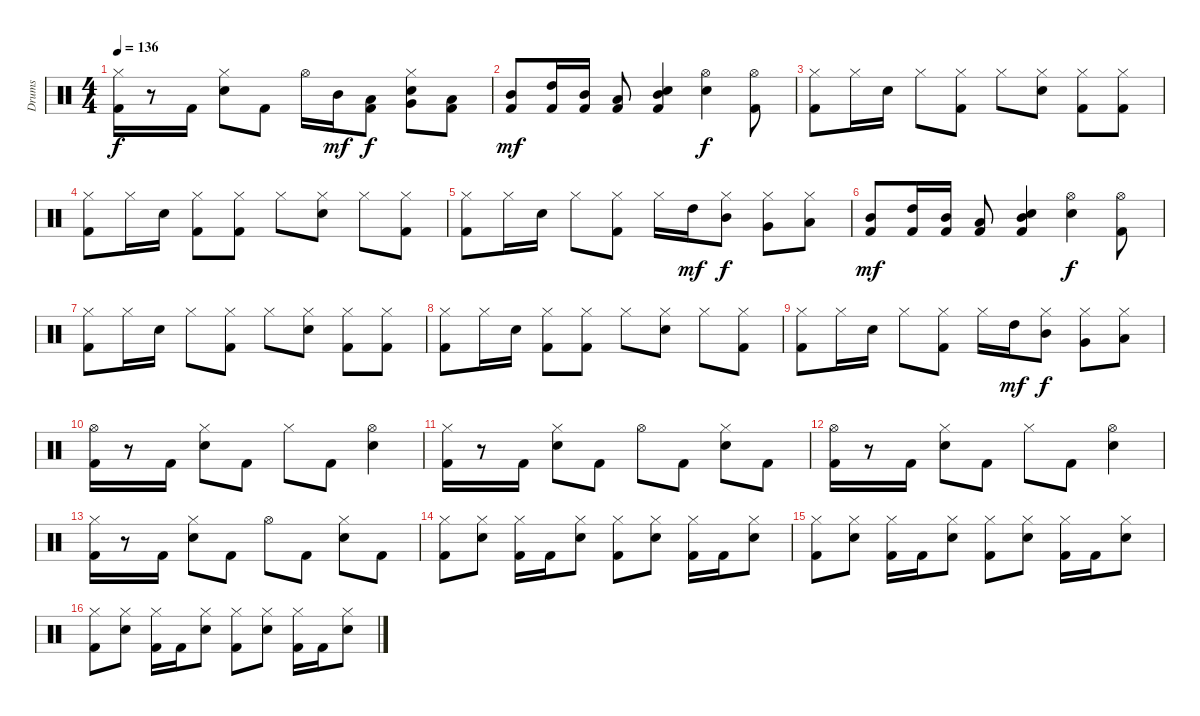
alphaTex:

\track ("Drums" "Drums") {instrument percussion}
\staff {score}
\articulation defaults
\ts (4 4)
\tempo 136
\clef neutral
\ks c
("Kick (hit) 2" "Hi-Hat (closed)").16{dy f} r.8 "Kick (hit) 2".16 ("Snare (hit) 2" "Hi-Hat (closed)").8 "Kick (hit) 2".8 "Hi-Hat (open)".16 "Mid Tom (hit)".16{dy mf} ("Kick (hit) 2" "Low Tom (hit)").8{dy f} ("Snare (hit) 2" "Hi-Hat (closed)" "Very Low Tom (hit)").8 ("Kick (hit) 2" "Low Floor Tom (hit)").8 |
("Kick (hit) 2" "Mid Tom (hit)").8{dy mf} ("Kick (hit) 2" "High Tom (hit)").16 ("Kick (hit) 2" "Mid Tom (hit)").16 ("Kick (hit) 2" "Low Tom (hit)").8 ("Kick (hit) 2" "Snare (hit) 2" "Mid Tom (hit)").4 ("Snare (hit) 2" "Hi-Hat (open)").4{dy f} ("Kick (hit) 2" "Hi-Hat (open)").8 |
("Kick (hit) 2" "Hi-Hat (closed)").8 "Hi-Hat (closed)".16 "Snare (hit) 2".16 "Hi-Hat (closed)".8 ("Kick (hit) 2" "Hi-Hat (closed)").8 "Hi-Hat (closed)".8 ("Snare (hit) 2" "Hi-Hat (closed)").8 ("Kick (hit) 2" "Hi-Hat (closed)").8 ("Kick (hit) 2" "Hi-Hat (closed)").8 |
("Kick (hit) 2" "Hi-Hat (closed)").8 "Hi-Hat (closed)".16 "Snare (hit) 2".16 ("Kick (hit) 2" "Hi-Hat (closed)").8 ("Kick (hit) 2" "Hi-Hat (closed)").8 "Hi-Hat (closed)".8 ("Snare (hit) 2" "Hi-Hat (closed)").8 "Hi-Hat (closed)".8 ("Kick (hit) 2" "Hi-Hat (closed)").8 |
("Kick (hit) 2" "Hi-Hat (closed)").8 "Hi-Hat (closed)".16 "Snare (hit) 2".16 "Hi-Hat (closed)".8 ("Kick (hit) 2" "Hi-Hat (closed)").8 "Hi-Hat (closed)".16 "High Tom (hit)".16{dy mf} ("Hi-Hat (closed)" "Mid Tom (hit)").8{dy f} ("Hi-Hat (closed)" "Very Low Tom (hit)").8 ("Low Floor Tom (hit)" "Hi-Hat (closed)").8 |
("Kick (hit) 2" "Mid Tom (hit)").8{dy mf} ("Kick (hit) 2" "High Tom (hit)").16 ("Kick (hit) 2" "Mid Tom (hit)").16 ("Kick (hit) 2" "Low Tom (hit)").8 ("Kick (hit) 2" "Snare (hit) 2" "Mid Tom (hit)").4 ("Snare (hit) 2" "Hi-Hat (open)").4{dy f} ("Kick (hit) 2" "Hi-Hat (open)").8 |
("Kick (hit) 2" "Hi-Hat (closed)").8 "Hi-Hat (closed)".16 "Snare (hit) 2".16 "Hi-Hat (closed)".8 ("Kick (hit) 2" "Hi-Hat (closed)").8 "Hi-Hat (closed)".8 ("Snare (hit) 2" "Hi-Hat (closed)").8 ("Kick (hit) 2" "Hi-Hat (closed)").8 ("Kick (hit) 2" "Hi-Hat (closed)").8 |
("Kick (hit) 2" "Hi-Hat (closed)").8 "Hi-Hat (closed)".16 "Snare (hit) 2".16 ("Kick (hit) 2" "Hi-Hat (closed)").8 ("Kick (hit) 2" "Hi-Hat (closed)").8 "Hi-Hat (closed)".8 ("Snare (hit) 2" "Hi-Hat (closed)").8 "Hi-Hat (closed)".8 ("Kick (hit) 2" "Hi-Hat (closed)").8 |
("Kick (hit) 2" "Hi-Hat (closed)").8 "Hi-Hat (closed)".16 "Snare (hit) 2".16 "Hi-Hat (closed)".8 ("Kick (hit) 2" "Hi-Hat (closed)").8 "Hi-Hat (closed)".16 "High Tom (hit)".16{dy mf} ("Hi-Hat (closed)" "Mid Tom (hit)").8{dy f} ("Hi-Hat (closed)" "Very Low Tom (hit)").8 ("Low Floor Tom (hit)" "Hi-Hat (closed)").8 |
("Kick (hit) 2" "Hi-Hat (open)").16 r.8 "Kick (hit) 2".16 ("Snare (hit) 2" "Hi-Hat (closed)").8 "Kick (hit) 2".8 "Hi-Hat (closed)".8 "Kick (hit) 2".8 ("Snare (hit) 2" "Hi-Hat (open)").4 |
("Kick (hit) 2" "Hi-Hat (closed)").16 r.8 "Kick (hit) 2".16 ("Snare (hit) 2" "Hi-Hat (closed)").8 "Kick (hit) 2".8 "Hi-Hat (open)".8 "Kick (hit) 2".8 ("Snare (hit) 2" "Hi-Hat (closed)").8 "Kick (hit) 2".8 |
("Kick (hit) 2" "Hi-Hat (open)").16 r.8 "Kick (hit) 2".16 ("Snare (hit) 2" "Hi-Hat (closed)").8 "Kick (hit) 2".8 "Hi-Hat (closed)".8 "Kick (hit) 2".8 ("Snare (hit) 2" "Hi-Hat (open)").4 |
("Kick (hit) 2" "Hi-Hat (closed)").16 r.8 "Kick (hit) 2".16 ("Snare (hit) 2" "Hi-Hat (closed)").8 "Kick (hit) 2".8 "Hi-Hat (open)".8 "Kick (hit) 2".8 ("Snare (hit) 2" "Hi-Hat (closed)").8 "Kick (hit) 2".8 |
("Kick (hit) 2" "Hi-Hat (closed)").8 ("Snare (hit) 2" "Hi-Hat (closed)").8 ("Kick (hit) 2" "Hi-Hat (closed)").16 "Kick (hit) 2".16 ("Snare (hit) 2" "Hi-Hat (closed)").8 ("Kick (hit) 2" "Hi-Hat (closed)").8 ("Snare (hit) 2" "Hi-Hat (closed)").8 ("Kick (hit) 2" "Hi-Hat (closed)").16 "Kick (hit) 2".16 ("Snare (hit) 2" "Hi-Hat (closed)").8 |
("Kick (hit) 2" "Hi-Hat (closed)").8 ("Snare (hit) 2" "Hi-Hat (closed)").8 ("Kick (hit) 2" "Hi-Hat (closed)").16 "Kick (hit) 2".16 ("Snare (hit) 2" "Hi-Hat (closed)").8 ("Kick (hit) 2" "Hi-Hat (closed)").8 ("Snare (hit) 2" "Hi-Hat (closed)").8 ("Kick (hit) 2" "Hi-Hat (closed)").16 "Kick (hit) 2".16 ("Snare (hit) 2" "Hi-Hat (closed)").8 |
("Kick (hit) 2" "Hi-Hat (closed)").8 ("Snare (hit) 2" "Hi-Hat (closed)").8 ("Kick (hit) 2" "Hi-Hat (closed)").16 "Kick (hit) 2".16 ("Snare (hit) 2" "Hi-Hat (closed)").8 ("Kick (hit) 2" "Hi-Hat (closed)").8 ("Snare (hit) 2" "Hi-Hat (closed)").8 ("Kick (hit) 2" "Hi-Hat (closed)").16 "Kick (hit) 2".16 ("Snare (hit) 2" "Hi-Hat (closed)").8
